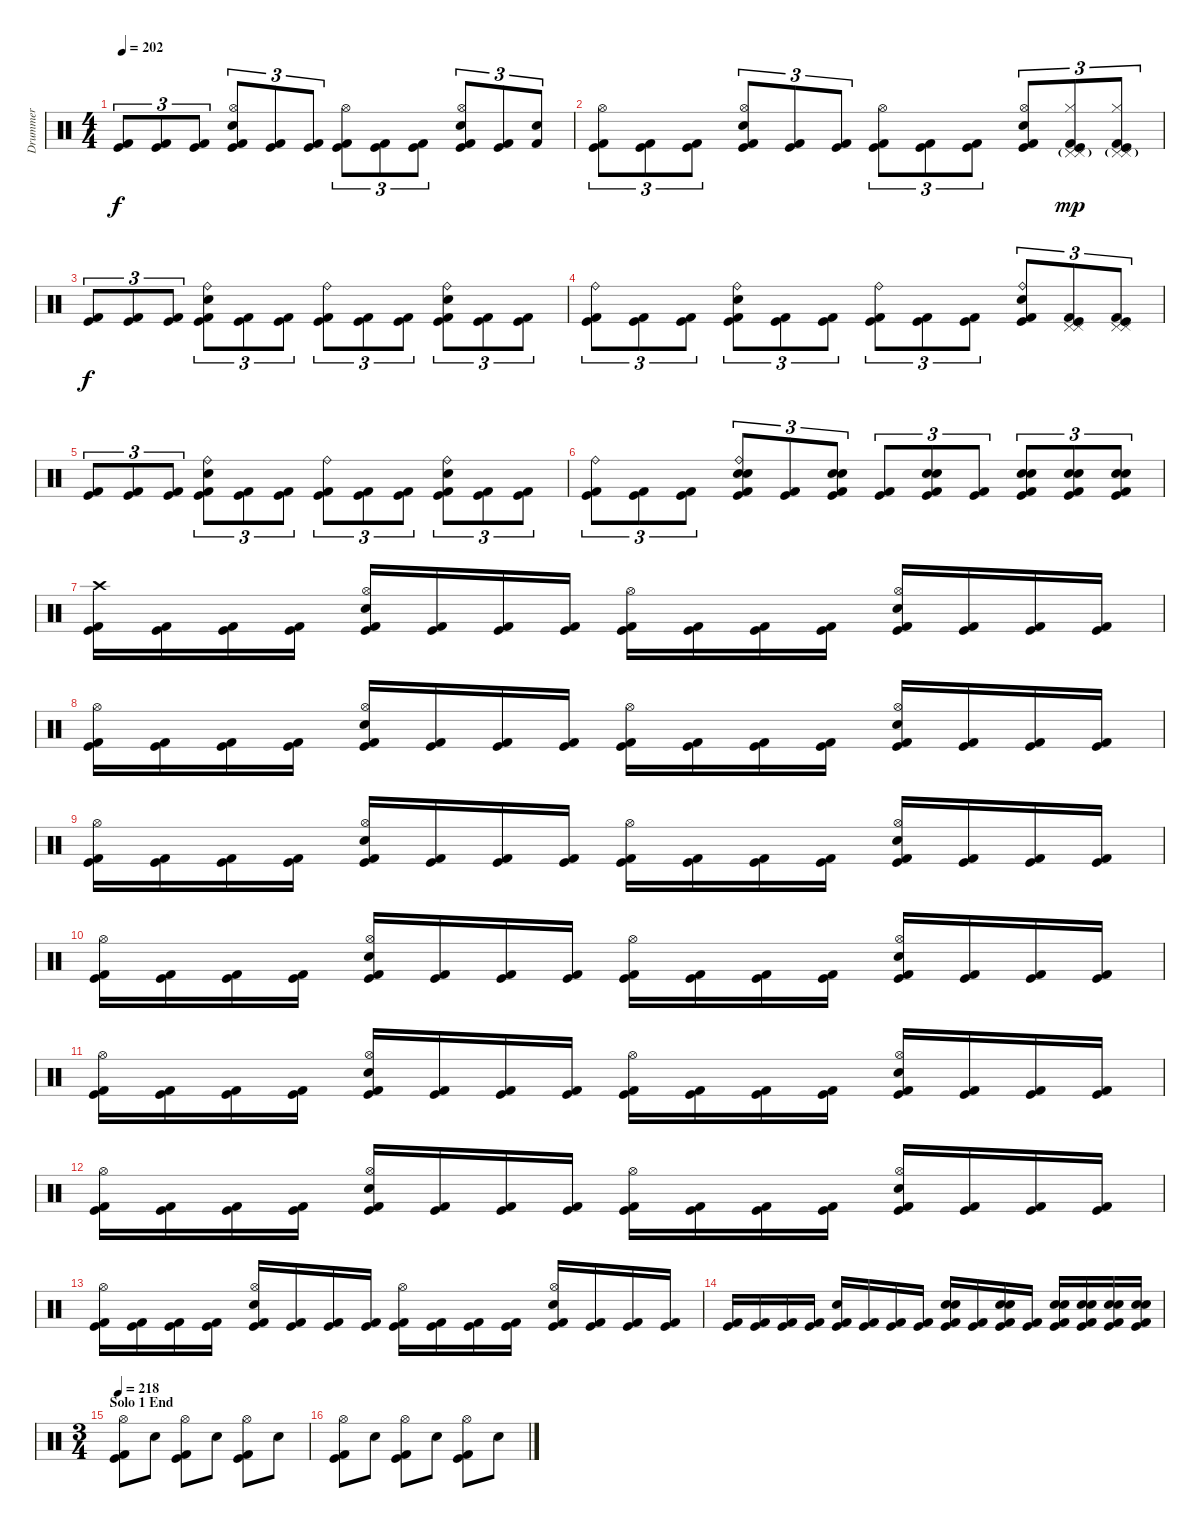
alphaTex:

\track ("Drummer" "Drummer") {instrument percussion}
\staff {score}
\articulation defaults
\ts (4 4)
\tempo 202
\clef neutral
\ks c
("Kick (hit)" "Kick (hit) 2").8{tu (3 2) dy f} ("Kick (hit)" "Kick (hit) 2").8{tu (3 2)} ("Kick (hit)" "Kick (hit) 2").8{tu (3 2)} ("Hi-Hat (open)" "Kick (hit)" "Snare (hit) 2" "Kick (hit) 2").8{tu (3 2)} ("Kick (hit)" "Kick (hit) 2").8{tu (3 2)} ("Kick (hit)" "Kick (hit) 2").8{tu (3 2)} ("Hi-Hat (open)" "Kick (hit)" "Kick (hit) 2").8{tu (3 2)} ("Kick (hit)" "Kick (hit) 2").8{tu (3 2)} ("Kick (hit)" "Kick (hit) 2").8{tu (3 2)} ("Hi-Hat (open)" "Kick (hit)" "Snare (hit) 2" "Kick (hit) 2").8{tu (3 2)} ("Kick (hit)" "Kick (hit) 2").8{tu (3 2)} ("Snare (hit)" "Kick (hit) 2").8{tu (3 2)} |
("Hi-Hat (open)" "Kick (hit)" "Kick (hit) 2").8{tu (3 2)} ("Kick (hit)" "Kick (hit) 2").8{tu (3 2)} ("Kick (hit)" "Kick (hit) 2").8{tu (3 2)} ("Hi-Hat (open)" "Kick (hit)" "Snare (hit) 2" "Kick (hit) 2").8{tu (3 2)} ("Kick (hit)" "Kick (hit) 2").8{tu (3 2)} ("Kick (hit)" "Kick (hit) 2").8{tu (3 2)} ("Hi-Hat (open)" "Kick (hit)" "Kick (hit) 2").8{tu (3 2)} ("Kick (hit)" "Kick (hit) 2").8{tu (3 2)} ("Kick (hit)" "Kick (hit) 2").8{tu (3 2)} ("Hi-Hat (open)" "Kick (hit)" "Snare (hit) 2" "Kick (hit) 2").8{tu (3 2)} ("Hi-Hat (closed)" "Pedal Hi-Hat (hit)" "Pedal Hi-Hat (hit)"{g} "Kick (hit)" "Kick (hit) 2").8{tu (3 2) dy mp} ("Hi-Hat (closed)" "Pedal Hi-Hat (hit)" "Pedal Hi-Hat (hit)"{g} "Kick (hit)" "Kick (hit) 2").8{tu (3 2)} |
("Kick (hit)" "Kick (hit) 2").8{tu (3 2) dy f} ("Kick (hit)" "Kick (hit) 2").8{tu (3 2)} ("Kick (hit)" "Kick (hit) 2").8{tu (3 2)} ("Ride (bell)" "Kick (hit)" "Snare (hit) 2" "Kick (hit) 2").8{tu (3 2)} ("Kick (hit)" "Kick (hit) 2").8{tu (3 2)} ("Kick (hit)" "Kick (hit) 2").8{tu (3 2)} ("Ride (bell)" "Kick (hit)" "Kick (hit) 2").8{tu (3 2)} ("Kick (hit)" "Kick (hit) 2").8{tu (3 2)} ("Kick (hit)" "Kick (hit) 2").8{tu (3 2)} ("Ride (bell)" "Kick (hit)" "Snare (hit) 2" "Kick (hit) 2").8{tu (3 2)} ("Kick (hit)" "Kick (hit) 2").8{tu (3 2)} ("Kick (hit)" "Kick (hit) 2").8{tu (3 2)} |
("Ride (bell)" "Kick (hit)" "Kick (hit) 2").8{tu (3 2)} ("Kick (hit)" "Kick (hit) 2").8{tu (3 2)} ("Kick (hit)" "Kick (hit) 2").8{tu (3 2)} ("Ride (bell)" "Kick (hit)" "Snare (hit) 2" "Kick (hit) 2").8{tu (3 2)} ("Kick (hit)" "Kick (hit) 2").8{tu (3 2)} ("Kick (hit)" "Kick (hit) 2").8{tu (3 2)} ("Ride (bell)" "Kick (hit)" "Kick (hit) 2").8{tu (3 2)} ("Kick (hit)" "Kick (hit) 2").8{tu (3 2)} ("Kick (hit)" "Kick (hit) 2").8{tu (3 2)} ("Ride (bell)" "Kick (hit)" "Snare (hit) 2" "Kick (hit) 2").8{tu (3 2)} ("Pedal Hi-Hat (hit)" "Pedal Hi-Hat (hit)" "Kick (hit)" "Kick (hit) 2").8{tu (3 2)} ("Pedal Hi-Hat (hit)" "Pedal Hi-Hat (hit)" "Kick (hit)" "Kick (hit) 2").8{tu (3 2)} |
("Kick (hit)" "Kick (hit) 2").8{tu (3 2)} ("Kick (hit)" "Kick (hit) 2").8{tu (3 2)} ("Kick (hit)" "Kick (hit) 2").8{tu (3 2)} ("Ride (bell)" "Kick (hit)" "Snare (hit) 2" "Kick (hit) 2").8{tu (3 2)} ("Kick (hit)" "Kick (hit) 2").8{tu (3 2)} ("Kick (hit)" "Kick (hit) 2").8{tu (3 2)} ("Ride (bell)" "Kick (hit)" "Kick (hit) 2").8{tu (3 2)} ("Kick (hit)" "Kick (hit) 2").8{tu (3 2)} ("Kick (hit)" "Kick (hit) 2").8{tu (3 2)} ("Ride (bell)" "Kick (hit)" "Snare (hit) 2" "Kick (hit) 2").8{tu (3 2)} ("Kick (hit)" "Kick (hit) 2").8{tu (3 2)} ("Kick (hit)" "Kick (hit) 2").8{tu (3 2)} |
("Ride (bell)" "Kick (hit)" "Kick (hit) 2").8{tu (3 2)} ("Kick (hit)" "Kick (hit) 2").8{tu (3 2)} ("Kick (hit)" "Kick (hit) 2").8{tu (3 2)} ("Ride (bell)" "Electric Snare (hit)" "Kick (hit)" "Snare (hit) 2" "Kick (hit) 2").8{tu (3 2)} ("Kick (hit)" "Kick (hit) 2").8{tu (3 2)} ("Electric Snare (hit)" "Snare (hit) 2" "Kick (hit)" "Kick (hit) 2").8{tu (3 2)} ("Kick (hit)" "Kick (hit) 2").8{tu (3 2)} ("Electric Snare (hit)" "Snare (hit) 2" "Kick (hit)" "Kick (hit) 2").8{tu (3 2)} ("Kick (hit)" "Kick (hit) 2").8{tu (3 2)} ("Electric Snare (hit)" "Kick (hit)" "Snare (hit) 2" "Kick (hit) 2").8{tu (3 2)} ("Electric Snare (hit)" "Snare (hit) 2" "Kick (hit)" "Kick (hit) 2").8{tu (3 2)} ("Electric Snare (hit)" "Snare (hit) 2" "Kick (hit)" "Kick (hit) 2").8{tu (3 2)} |
("Crash high (hit)" "Kick (hit)" "Kick (hit) 2").16 ("Kick (hit)" "Kick (hit) 2").16 ("Kick (hit)" "Kick (hit) 2").16 ("Kick (hit)" "Kick (hit) 2").16 ("Hi-Hat (open)" "Kick (hit)" "Snare (hit) 2" "Kick (hit) 2").16 ("Kick (hit)" "Kick (hit) 2").16 ("Kick (hit)" "Kick (hit) 2").16 ("Kick (hit)" "Kick (hit) 2").16 ("Hi-Hat (open)" "Kick (hit)" "Kick (hit) 2").16 ("Kick (hit)" "Kick (hit) 2").16 ("Kick (hit)" "Kick (hit) 2").16 ("Kick (hit)" "Kick (hit) 2").16 ("Hi-Hat (open)" "Kick (hit)" "Snare (hit) 2" "Kick (hit) 2").16 ("Kick (hit)" "Kick (hit) 2").16 ("Kick (hit)" "Kick (hit) 2").16 ("Kick (hit)" "Kick (hit) 2").16 |
("Hi-Hat (open)" "Kick (hit)" "Kick (hit) 2").16 ("Kick (hit)" "Kick (hit) 2").16 ("Kick (hit)" "Kick (hit) 2").16 ("Kick (hit)" "Kick (hit) 2").16 ("Hi-Hat (open)" "Kick (hit)" "Snare (hit) 2" "Kick (hit) 2").16 ("Kick (hit)" "Kick (hit) 2").16 ("Kick (hit)" "Kick (hit) 2").16 ("Kick (hit)" "Kick (hit) 2").16 ("Hi-Hat (open)" "Kick (hit)" "Kick (hit) 2").16 ("Kick (hit)" "Kick (hit) 2").16 ("Kick (hit)" "Kick (hit) 2").16 ("Kick (hit)" "Kick (hit) 2").16 ("Hi-Hat (open)" "Kick (hit)" "Snare (hit) 2" "Kick (hit) 2").16 ("Kick (hit)" "Kick (hit) 2").16 ("Kick (hit)" "Kick (hit) 2").16 ("Kick (hit)" "Kick (hit) 2").16 |
("Hi-Hat (open)" "Kick (hit)" "Kick (hit) 2").16 ("Kick (hit)" "Kick (hit) 2").16 ("Kick (hit)" "Kick (hit) 2").16 ("Kick (hit)" "Kick (hit) 2").16 ("Hi-Hat (open)" "Kick (hit)" "Snare (hit) 2" "Kick (hit) 2").16 ("Kick (hit)" "Kick (hit) 2").16 ("Kick (hit)" "Kick (hit) 2").16 ("Kick (hit)" "Kick (hit) 2").16 ("Hi-Hat (open)" "Kick (hit)" "Kick (hit) 2").16 ("Kick (hit)" "Kick (hit) 2").16 ("Kick (hit)" "Kick (hit) 2").16 ("Kick (hit)" "Kick (hit) 2").16 ("Hi-Hat (open)" "Kick (hit)" "Snare (hit) 2" "Kick (hit) 2").16 ("Kick (hit)" "Kick (hit) 2").16 ("Kick (hit)" "Kick (hit) 2").16 ("Kick (hit)" "Kick (hit) 2").16 |
("Hi-Hat (open)" "Kick (hit)" "Kick (hit) 2").16 ("Kick (hit)" "Kick (hit) 2").16 ("Kick (hit)" "Kick (hit) 2").16 ("Kick (hit)" "Kick (hit) 2").16 ("Hi-Hat (open)" "Kick (hit)" "Snare (hit) 2" "Kick (hit) 2").16 ("Kick (hit)" "Kick (hit) 2").16 ("Kick (hit)" "Kick (hit) 2").16 ("Kick (hit)" "Kick (hit) 2").16 ("Hi-Hat (open)" "Kick (hit)" "Kick (hit) 2").16 ("Kick (hit)" "Kick (hit) 2").16 ("Kick (hit)" "Kick (hit) 2").16 ("Kick (hit)" "Kick (hit) 2").16 ("Hi-Hat (open)" "Kick (hit)" "Snare (hit) 2" "Kick (hit) 2").16 ("Kick (hit)" "Kick (hit) 2").16 ("Kick (hit)" "Kick (hit) 2").16 ("Kick (hit)" "Kick (hit) 2").16 |
("Hi-Hat (open)" "Kick (hit)" "Kick (hit) 2").16 ("Kick (hit)" "Kick (hit) 2").16 ("Kick (hit)" "Kick (hit) 2").16 ("Kick (hit)" "Kick (hit) 2").16 ("Hi-Hat (open)" "Kick (hit)" "Snare (hit) 2" "Kick (hit) 2").16 ("Kick (hit)" "Kick (hit) 2").16 ("Kick (hit)" "Kick (hit) 2").16 ("Kick (hit)" "Kick (hit) 2").16 ("Hi-Hat (open)" "Kick (hit)" "Kick (hit) 2").16 ("Kick (hit)" "Kick (hit) 2").16 ("Kick (hit)" "Kick (hit) 2").16 ("Kick (hit)" "Kick (hit) 2").16 ("Hi-Hat (open)" "Kick (hit)" "Snare (hit) 2" "Kick (hit) 2").16 ("Kick (hit)" "Kick (hit) 2").16 ("Kick (hit)" "Kick (hit) 2").16 ("Kick (hit)" "Kick (hit) 2").16 |
("Hi-Hat (open)" "Kick (hit)" "Kick (hit) 2").16 ("Kick (hit)" "Kick (hit) 2").16 ("Kick (hit)" "Kick (hit) 2").16 ("Kick (hit)" "Kick (hit) 2").16 ("Hi-Hat (open)" "Kick (hit)" "Snare (hit) 2" "Kick (hit) 2").16 ("Kick (hit)" "Kick (hit) 2").16 ("Kick (hit)" "Kick (hit) 2").16 ("Kick (hit)" "Kick (hit) 2").16 ("Hi-Hat (open)" "Kick (hit)" "Kick (hit) 2").16 ("Kick (hit)" "Kick (hit) 2").16 ("Kick (hit)" "Kick (hit) 2").16 ("Kick (hit)" "Kick (hit) 2").16 ("Hi-Hat (open)" "Kick (hit)" "Snare (hit) 2" "Kick (hit) 2").16 ("Kick (hit)" "Kick (hit) 2").16 ("Kick (hit)" "Kick (hit) 2").16 ("Kick (hit)" "Kick (hit) 2").16 |
("Hi-Hat (open)" "Kick (hit)" "Kick (hit) 2").16 ("Kick (hit)" "Kick (hit) 2").16 ("Kick (hit)" "Kick (hit) 2").16 ("Kick (hit)" "Kick (hit) 2").16 ("Hi-Hat (open)" "Kick (hit)" "Snare (hit) 2" "Kick (hit) 2").16 ("Kick (hit)" "Kick (hit) 2").16 ("Kick (hit)" "Kick (hit) 2").16 ("Kick (hit)" "Kick (hit) 2").16 ("Hi-Hat (open)" "Kick (hit)" "Kick (hit) 2").16 ("Kick (hit)" "Kick (hit) 2").16 ("Kick (hit)" "Kick (hit) 2").16 ("Kick (hit)" "Kick (hit) 2").16 ("Hi-Hat (open)" "Kick (hit)" "Snare (hit) 2" "Kick (hit) 2").16 ("Kick (hit)" "Kick (hit) 2").16 ("Kick (hit)" "Kick (hit) 2").16 ("Kick (hit)" "Kick (hit) 2").16 |
("Kick (hit)" "Kick (hit) 2").16 ("Kick (hit)" "Kick (hit) 2").16 ("Kick (hit)" "Kick (hit) 2").16 ("Kick (hit)" "Kick (hit) 2").16 ("Kick (hit)" "Snare (hit) 2" "Kick (hit) 2").16 ("Kick (hit)" "Kick (hit) 2").16 ("Kick (hit)" "Kick (hit) 2").16 ("Kick (hit)" "Kick (hit) 2").16 ("Electric Snare (hit)" "Snare (hit) 2" "Kick (hit)" "Kick (hit) 2").16 ("Kick (hit)" "Kick (hit) 2").16 ("Electric Snare (hit)" "Snare (hit) 2" "Kick (hit)" "Kick (hit) 2").16 ("Kick (hit)" "Kick (hit) 2").16 ("Electric Snare (hit)" "Kick (hit)" "Snare (hit) 2" "Kick (hit) 2").16 ("Electric Snare (hit)" "Snare (hit) 2" "Kick (hit)" "Kick (hit) 2").16 ("Electric Snare (hit)" "Snare (hit) 2" "Kick (hit)" "Kick (hit) 2").16 ("Electric Snare (hit)" "Snare (hit) 2" "Kick (hit)" "Kick (hit) 2").16 |
\ts (3 4)
\section ("" "Solo 1 End")
\tempo 218
("Hi-Hat (open)" "Kick (hit)" "Kick (hit) 2").8 "Snare (hit) 2".8 ("Hi-Hat (open)" "Kick (hit)" "Kick (hit) 2").8 "Snare (hit) 2".8 ("Hi-Hat (open)" "Kick (hit)" "Kick (hit) 2").8 "Snare (hit) 2".8 |
("Hi-Hat (open)" "Kick (hit)" "Kick (hit) 2").8 "Snare (hit) 2".8 ("Hi-Hat (open)" "Kick (hit)" "Kick (hit) 2").8 "Snare (hit) 2".8 ("Hi-Hat (open)" "Kick (hit)" "Kick (hit) 2").8 "Snare (hit) 2".8
